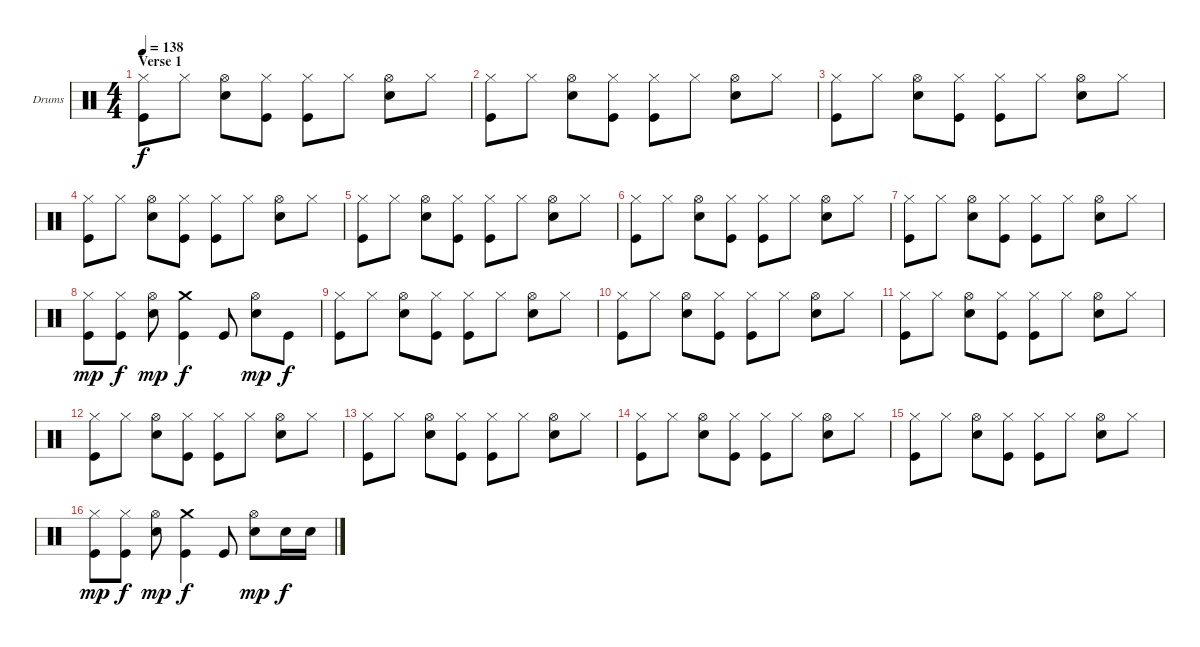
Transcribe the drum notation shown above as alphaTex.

\bracketExtendMode groupsimilarinstruments
\firstSystemTrackNameOrientation horizontal
\otherSystemsTrackNameOrientation horizontal
\track ("Drumkit" "Drums") {instrument percussion}
\staff {score}
\articulation defaults
\ts (4 4)
\section ("" "Verse 1")
\tempo 138
\clef neutral
\ks c
("Hi-Hat (closed)" "Kick (hit)").8{dy f} "Hi-Hat (closed)".8 ("Hi-Hat (open)" "Snare (hit) 2").8 ("Hi-Hat (closed)" "Kick (hit)").8 ("Hi-Hat (closed)" "Kick (hit)").8 "Hi-Hat (closed)".8 ("Hi-Hat (open)" "Snare (hit) 2").8 "Hi-Hat (closed)".8 |
("Hi-Hat (closed)" "Kick (hit)").8 "Hi-Hat (closed)".8 ("Hi-Hat (open)" "Snare (hit) 2").8 ("Hi-Hat (closed)" "Kick (hit)").8 ("Hi-Hat (closed)" "Kick (hit)").8 "Hi-Hat (closed)".8 ("Hi-Hat (open)" "Snare (hit) 2").8 "Hi-Hat (closed)".8 |
("Hi-Hat (closed)" "Kick (hit)").8 "Hi-Hat (closed)".8 ("Hi-Hat (open)" "Snare (hit) 2").8 ("Hi-Hat (closed)" "Kick (hit)").8 ("Hi-Hat (closed)" "Kick (hit)").8 "Hi-Hat (closed)".8 ("Hi-Hat (open)" "Snare (hit) 2").8 "Hi-Hat (closed)".8 |
("Hi-Hat (closed)" "Kick (hit)").8 "Hi-Hat (closed)".8 ("Hi-Hat (open)" "Snare (hit) 2").8 ("Hi-Hat (closed)" "Kick (hit)").8 ("Hi-Hat (closed)" "Kick (hit)").8 "Hi-Hat (closed)".8 ("Hi-Hat (open)" "Snare (hit) 2").8 "Hi-Hat (closed)".8 |
("Hi-Hat (closed)" "Kick (hit)").8 "Hi-Hat (closed)".8 ("Hi-Hat (open)" "Snare (hit) 2").8 ("Hi-Hat (closed)" "Kick (hit)").8 ("Hi-Hat (closed)" "Kick (hit)").8 "Hi-Hat (closed)".8 ("Hi-Hat (open)" "Snare (hit) 2").8 "Hi-Hat (closed)".8 |
("Hi-Hat (closed)" "Kick (hit)").8 "Hi-Hat (closed)".8 ("Hi-Hat (open)" "Snare (hit) 2").8 ("Hi-Hat (closed)" "Kick (hit)").8 ("Hi-Hat (closed)" "Kick (hit)").8 "Hi-Hat (closed)".8 ("Hi-Hat (open)" "Snare (hit) 2").8 "Hi-Hat (closed)".8 |
("Hi-Hat (closed)" "Kick (hit)").8 "Hi-Hat (closed)".8 ("Hi-Hat (open)" "Snare (hit) 2").8 ("Hi-Hat (closed)" "Kick (hit)").8 ("Hi-Hat (closed)" "Kick (hit)").8 "Hi-Hat (closed)".8 ("Hi-Hat (open)" "Snare (hit) 2").8 "Hi-Hat (closed)".8 |
("Hi-Hat (closed)" "Kick (hit)").8{dy mp} ("Hi-Hat (closed)" "Kick (hit)").8{dy f} ("Hi-Hat (open)" "Snare (hit) 2").8{dy mp} ("Crash medium (hit)" "Kick (hit)").4{dy f} "Kick (hit)".8 ("Hi-Hat (open)" "Snare (hit) 2").8{dy mp} "Kick (hit)".8{dy f} |
("Hi-Hat (closed)" "Kick (hit)").8 "Hi-Hat (closed)".8 ("Hi-Hat (open)" "Snare (hit) 2").8 ("Hi-Hat (closed)" "Kick (hit)").8 ("Hi-Hat (closed)" "Kick (hit)").8 "Hi-Hat (closed)".8 ("Hi-Hat (open)" "Snare (hit) 2").8 "Hi-Hat (closed)".8 |
("Hi-Hat (closed)" "Kick (hit)").8 "Hi-Hat (closed)".8 ("Hi-Hat (open)" "Snare (hit) 2").8 ("Hi-Hat (closed)" "Kick (hit)").8 ("Hi-Hat (closed)" "Kick (hit)").8 "Hi-Hat (closed)".8 ("Hi-Hat (open)" "Snare (hit) 2").8 "Hi-Hat (closed)".8 |
("Hi-Hat (closed)" "Kick (hit)").8 "Hi-Hat (closed)".8 ("Hi-Hat (open)" "Snare (hit) 2").8 ("Hi-Hat (closed)" "Kick (hit)").8 ("Hi-Hat (closed)" "Kick (hit)").8 "Hi-Hat (closed)".8 ("Hi-Hat (open)" "Snare (hit) 2").8 "Hi-Hat (closed)".8 |
("Hi-Hat (closed)" "Kick (hit)").8 "Hi-Hat (closed)".8 ("Hi-Hat (open)" "Snare (hit) 2").8 ("Hi-Hat (closed)" "Kick (hit)").8 ("Hi-Hat (closed)" "Kick (hit)").8 "Hi-Hat (closed)".8 ("Hi-Hat (open)" "Snare (hit) 2").8 "Hi-Hat (closed)".8 |
("Hi-Hat (closed)" "Kick (hit)").8 "Hi-Hat (closed)".8 ("Hi-Hat (open)" "Snare (hit) 2").8 ("Hi-Hat (closed)" "Kick (hit)").8 ("Hi-Hat (closed)" "Kick (hit)").8 "Hi-Hat (closed)".8 ("Hi-Hat (open)" "Snare (hit) 2").8 "Hi-Hat (closed)".8 |
("Hi-Hat (closed)" "Kick (hit)").8 "Hi-Hat (closed)".8 ("Hi-Hat (open)" "Snare (hit) 2").8 ("Hi-Hat (closed)" "Kick (hit)").8 ("Hi-Hat (closed)" "Kick (hit)").8 "Hi-Hat (closed)".8 ("Hi-Hat (open)" "Snare (hit) 2").8 "Hi-Hat (closed)".8 |
("Hi-Hat (closed)" "Kick (hit)").8 "Hi-Hat (closed)".8 ("Hi-Hat (open)" "Snare (hit) 2").8 ("Hi-Hat (closed)" "Kick (hit)").8 ("Hi-Hat (closed)" "Kick (hit)").8 "Hi-Hat (closed)".8 ("Hi-Hat (open)" "Snare (hit) 2").8 "Hi-Hat (closed)".8 |
("Hi-Hat (closed)" "Kick (hit)").8{dy mp} ("Hi-Hat (closed)" "Kick (hit)").8{dy f} ("Hi-Hat (open)" "Snare (hit) 2").8{dy mp} ("Crash medium (hit)" "Kick (hit)").4{dy f} "Kick (hit)".8 ("Hi-Hat (open)" "Snare (hit) 2").8{dy mp} "Snare (hit) 2".16{dy f} "Snare (hit) 2".16
